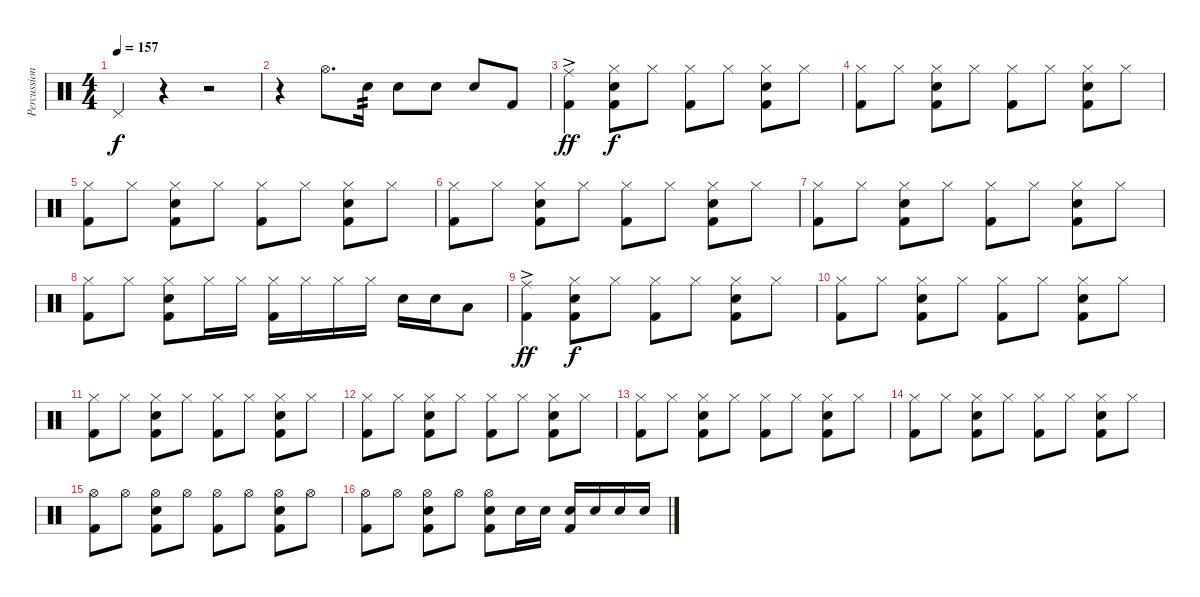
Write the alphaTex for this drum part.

\track ("Percussion" "Percussion") {instrument percussion}
\staff {score}
\articulation defaults
\ts (4 4)
\tempo 157
\clef neutral
\ks c "Pedal Hi-Hat (hit)".4{dy f}
r.4 r.2 |
r.4 "Hi-Hat (open)".8{d} "Snare (hit) 2".16{tp 2} "Snare (hit) 2".8 "Snare (hit) 2".8 "Snare (hit) 2".8 "Kick (hit) 2".8 |
("Ride (middle)"{ac} "Kick (hit) 2").4{dy ff} ("Hi-Hat (closed)" "Snare (hit) 2" "Kick (hit) 2").8{dy f} "Hi-Hat (closed)".8 ("Hi-Hat (closed)" "Kick (hit) 2").8 "Hi-Hat (closed)".8 ("Hi-Hat (closed)" "Snare (hit) 2" "Kick (hit) 2").8 "Hi-Hat (closed)".8 |
("Hi-Hat (closed)" "Kick (hit) 2").8 "Hi-Hat (closed)".8 ("Hi-Hat (closed)" "Snare (hit) 2" "Kick (hit) 2").8 "Hi-Hat (closed)".8 ("Hi-Hat (closed)" "Kick (hit) 2").8 "Hi-Hat (closed)".8 ("Hi-Hat (closed)" "Snare (hit) 2" "Kick (hit) 2").8 "Hi-Hat (closed)".8 |
("Hi-Hat (closed)" "Kick (hit) 2").8 "Hi-Hat (closed)".8 ("Hi-Hat (closed)" "Snare (hit) 2" "Kick (hit) 2").8 "Hi-Hat (closed)".8 ("Hi-Hat (closed)" "Kick (hit) 2").8 "Hi-Hat (closed)".8 ("Hi-Hat (closed)" "Snare (hit) 2" "Kick (hit) 2").8 "Hi-Hat (closed)".8 |
("Hi-Hat (closed)" "Kick (hit) 2").8 "Hi-Hat (closed)".8 ("Hi-Hat (closed)" "Snare (hit) 2" "Kick (hit) 2").8 "Hi-Hat (closed)".8 ("Hi-Hat (closed)" "Kick (hit) 2").8 "Hi-Hat (closed)".8 ("Hi-Hat (closed)" "Snare (hit) 2" "Kick (hit) 2").8 "Hi-Hat (closed)".8 |
("Hi-Hat (closed)" "Kick (hit) 2").8 "Hi-Hat (closed)".8 ("Hi-Hat (closed)" "Snare (hit) 2" "Kick (hit) 2").8 "Hi-Hat (closed)".8 ("Hi-Hat (closed)" "Kick (hit) 2").8 "Hi-Hat (closed)".8 ("Hi-Hat (closed)" "Snare (hit) 2" "Kick (hit) 2").8 "Hi-Hat (closed)".8 |
("Hi-Hat (closed)" "Kick (hit) 2").8 "Hi-Hat (closed)".8 ("Hi-Hat (closed)" "Snare (hit) 2" "Kick (hit) 2").8 "Hi-Hat (closed)".16 "Hi-Hat (closed)".16 ("Hi-Hat (closed)" "Kick (hit) 2").16 "Hi-Hat (closed)".16 "Hi-Hat (closed)".16 "Hi-Hat (closed)".16 "Snare (hit) 2".16 "Snare (hit) 2".16 "Low Tom (hit)".8 |
("Ride (middle)"{ac} "Kick (hit) 2").4{dy ff} ("Hi-Hat (closed)" "Snare (hit) 2" "Kick (hit) 2").8{dy f} "Hi-Hat (closed)".8 ("Hi-Hat (closed)" "Kick (hit) 2").8 "Hi-Hat (closed)".8 ("Hi-Hat (closed)" "Snare (hit) 2" "Kick (hit) 2").8 "Hi-Hat (closed)".8 |
("Hi-Hat (closed)" "Kick (hit) 2").8 "Hi-Hat (closed)".8 ("Hi-Hat (closed)" "Snare (hit) 2" "Kick (hit) 2").8 "Hi-Hat (closed)".8 ("Hi-Hat (closed)" "Kick (hit) 2").8 "Hi-Hat (closed)".8 ("Hi-Hat (closed)" "Snare (hit) 2" "Kick (hit) 2").8 "Hi-Hat (closed)".8 |
("Hi-Hat (closed)" "Kick (hit) 2").8 "Hi-Hat (closed)".8 ("Hi-Hat (closed)" "Snare (hit) 2" "Kick (hit) 2").8 "Hi-Hat (closed)".8 ("Hi-Hat (closed)" "Kick (hit) 2").8 "Hi-Hat (closed)".8 ("Hi-Hat (closed)" "Snare (hit) 2" "Kick (hit) 2").8 "Hi-Hat (closed)".8 |
("Hi-Hat (closed)" "Kick (hit) 2").8 "Hi-Hat (closed)".8 ("Hi-Hat (closed)" "Snare (hit) 2" "Kick (hit) 2").8 "Hi-Hat (closed)".8 ("Hi-Hat (closed)" "Kick (hit) 2").8 "Hi-Hat (closed)".8 ("Hi-Hat (closed)" "Snare (hit) 2" "Kick (hit) 2").8 "Hi-Hat (closed)".8 |
("Hi-Hat (closed)" "Kick (hit) 2").8 "Hi-Hat (closed)".8 ("Hi-Hat (closed)" "Snare (hit) 2" "Kick (hit) 2").8 "Hi-Hat (closed)".8 ("Hi-Hat (closed)" "Kick (hit) 2").8 "Hi-Hat (closed)".8 ("Hi-Hat (closed)" "Snare (hit) 2" "Kick (hit) 2").8 "Hi-Hat (closed)".8 |
("Hi-Hat (closed)" "Kick (hit) 2").8 "Hi-Hat (closed)".8 ("Hi-Hat (closed)" "Snare (hit) 2" "Kick (hit) 2").8 "Hi-Hat (closed)".8 ("Hi-Hat (closed)" "Kick (hit) 2").8 "Hi-Hat (closed)".8 ("Hi-Hat (closed)" "Snare (hit) 2" "Kick (hit) 2").8 "Hi-Hat (closed)".8 |
("Hi-Hat (open)" "Kick (hit) 2").8 "Hi-Hat (open)".8 ("Hi-Hat (open)" "Snare (hit) 2" "Kick (hit) 2").8 "Hi-Hat (open)".8 ("Hi-Hat (open)" "Kick (hit) 2").8 "Hi-Hat (open)".8 ("Hi-Hat (open)" "Snare (hit) 2" "Kick (hit) 2").8 "Hi-Hat (open)".8 |
("Hi-Hat (open)" "Kick (hit) 2").8 "Hi-Hat (open)".8 ("Hi-Hat (open)" "Snare (hit) 2" "Kick (hit) 2").8 "Hi-Hat (open)".8 ("Hi-Hat (open)" "Snare (hit) 2" "Kick (hit) 2").8 "Snare (hit) 2".16 "Snare (hit) 2".16 ("Snare (hit) 2" "Kick (hit) 2").16 "Snare (hit) 2".16 "Snare (hit) 2".16 "Snare (hit) 2".16
